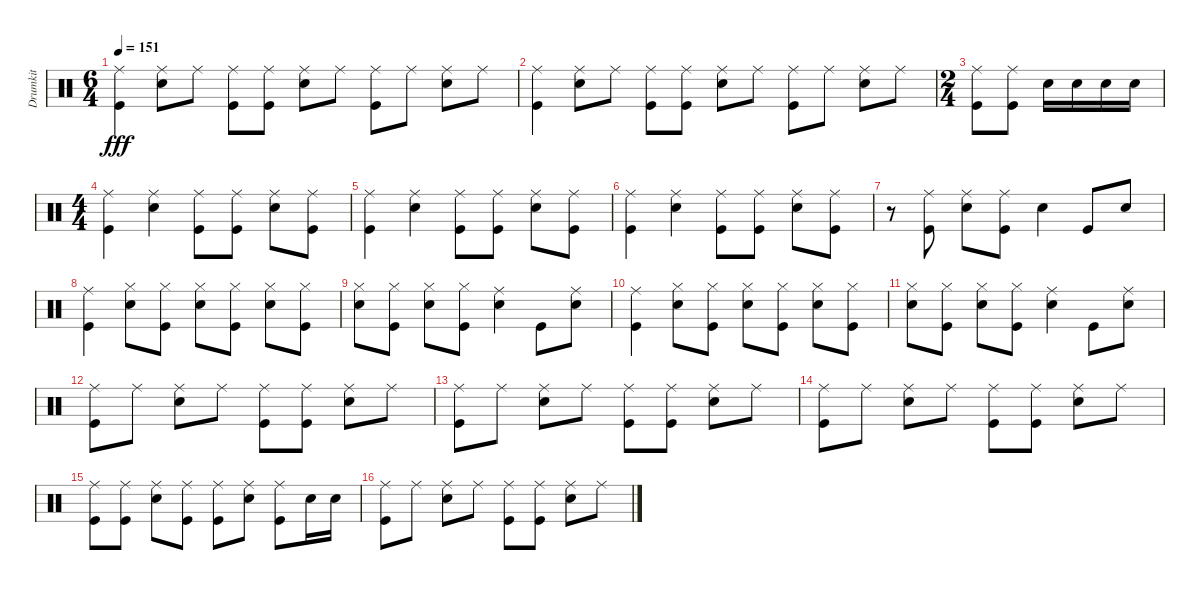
\track ("Drumkit" "Drumkit") {instrument percussion}
\staff {score}
\articulation defaults
\ts (6 4)
\tempo 151
\clef neutral
\ks c
("Kick (hit)" "Ride (middle)").4{dy fff} ("Snare (hit) 2" "Ride (middle)").8 "Ride (middle)".8 ("Kick (hit)" "Ride (middle)").8 ("Kick (hit)" "Ride (middle)").8 ("Snare (hit) 2" "Ride (middle)").8 "Ride (middle)".8 ("Kick (hit)" "Ride (middle)").8 "Ride (middle)".8 ("Snare (hit) 2" "Ride (middle)").8 "Ride (middle)".8 |
("Kick (hit)" "Ride (middle)").4 ("Snare (hit) 2" "Ride (middle)").8 "Ride (middle)".8 ("Kick (hit)" "Ride (middle)").8 ("Kick (hit)" "Ride (middle)").8 ("Snare (hit) 2" "Ride (middle)").8 "Ride (middle)".8 ("Kick (hit)" "Ride (middle)").8 "Ride (middle)".8 ("Snare (hit) 2" "Ride (middle)").8 "Ride (middle)".8 |
\ts (2 4)
("Kick (hit)" "Ride (middle)").8 ("Kick (hit)" "Ride (middle)").8 "Snare (hit) 2".16 "Snare (hit) 2".16 "Snare (hit) 2".16 "Snare (hit) 2".16 |
\ts (4 4)
("Ride (middle)" "Kick (hit)").4 ("Ride (middle)" "Snare (hit) 2").4 ("Kick (hit)" "Ride (middle)").8 ("Kick (hit)" "Ride (middle)").8 ("Snare (hit) 2" "Ride (middle)").8 ("Kick (hit)" "Ride (middle)").8 |
("Ride (middle)" "Kick (hit)").4 ("Ride (middle)" "Snare (hit) 2").4 ("Kick (hit)" "Ride (middle)").8 ("Kick (hit)" "Ride (middle)").8 ("Snare (hit) 2" "Ride (middle)").8 ("Kick (hit)" "Ride (middle)").8 |
("Ride (middle)" "Kick (hit)").4 ("Ride (middle)" "Snare (hit) 2").4 ("Kick (hit)" "Ride (middle)").8 ("Kick (hit)" "Ride (middle)").8 ("Snare (hit) 2" "Ride (middle)").8 ("Kick (hit)" "Ride (middle)").8 |
r.8 ("Kick (hit)" "Ride (middle)").8 ("Ride (middle)" "Snare (hit) 2").8 ("Ride (middle)" "Kick (hit)").8 "Snare (hit) 2".4 "Kick (hit)".8 "Snare (hit) 2".8 |
("Ride (middle)" "Kick (hit)").4 ("Hi-Hat (closed)" "Snare (hit) 2").8 ("Hi-Hat (closed)" "Kick (hit)").8 ("Snare (hit) 2" "Hi-Hat (closed)").8 ("Kick (hit)" "Hi-Hat (closed)").8 ("Snare (hit) 2" "Hi-Hat (closed)").8 ("Kick (hit)" "Hi-Hat (closed)").8 |
("Snare (hit) 2" "Hi-Hat (closed)").8 ("Kick (hit)" "Hi-Hat (closed)").8 ("Snare (hit) 2" "Hi-Hat (closed)").8 ("Kick (hit)" "Hi-Hat (closed)").8 ("Ride (middle)" "Snare (hit) 2").4 "Kick (hit)".8 ("Ride (middle)" "Snare (hit) 2").8 |
("Ride (middle)" "Kick (hit)").4 ("Hi-Hat (closed)" "Snare (hit) 2").8 ("Hi-Hat (closed)" "Kick (hit)").8 ("Snare (hit) 2" "Hi-Hat (closed)").8 ("Kick (hit)" "Hi-Hat (closed)").8 ("Snare (hit) 2" "Hi-Hat (closed)").8 ("Kick (hit)" "Hi-Hat (closed)").8 |
("Snare (hit) 2" "Hi-Hat (closed)").8 ("Kick (hit)" "Hi-Hat (closed)").8 ("Snare (hit) 2" "Hi-Hat (closed)").8 ("Kick (hit)" "Hi-Hat (closed)").8 ("Ride (middle)" "Snare (hit) 2").4 "Kick (hit)".8 ("Ride (middle)" "Snare (hit) 2").8 |
("Kick (hit)" "Ride (middle)").8 "Ride (middle)".8 ("Snare (hit) 2" "Ride (middle)").8 "Ride (middle)".8 ("Kick (hit)" "Ride (middle)").8 ("Kick (hit)" "Ride (middle)").8 ("Snare (hit) 2" "Ride (middle)").8 "Ride (middle)".8 |
("Kick (hit)" "Ride (middle)").8 "Ride (middle)".8 ("Snare (hit) 2" "Ride (middle)").8 "Ride (middle)".8 ("Kick (hit)" "Ride (middle)").8 ("Kick (hit)" "Ride (middle)").8 ("Snare (hit) 2" "Ride (middle)").8 "Ride (middle)".8 |
("Kick (hit)" "Ride (middle)").8 "Ride (middle)".8 ("Snare (hit) 2" "Ride (middle)").8 "Ride (middle)".8 ("Kick (hit)" "Ride (middle)").8 ("Kick (hit)" "Ride (middle)").8 ("Snare (hit) 2" "Ride (middle)").8 "Ride (middle)".8 |
("Kick (hit)" "Ride (middle)").8 ("Kick (hit)" "Ride (middle)").8 ("Snare (hit) 2" "Ride (middle)").8 ("Kick (hit)" "Ride (middle)").8 ("Kick (hit)" "Ride (middle)").8 ("Snare (hit) 2" "Ride (middle)").8 ("Kick (hit)" "Ride (middle)").8 "Snare (hit) 2".16 "Snare (hit) 2".16 |
("Kick (hit)" "Ride (middle)").8 "Ride (middle)".8 ("Snare (hit) 2" "Ride (middle)").8 "Ride (middle)".8 ("Kick (hit)" "Ride (middle)").8 ("Kick (hit)" "Ride (middle)").8 ("Snare (hit) 2" "Ride (middle)").8 "Ride (middle)".8
